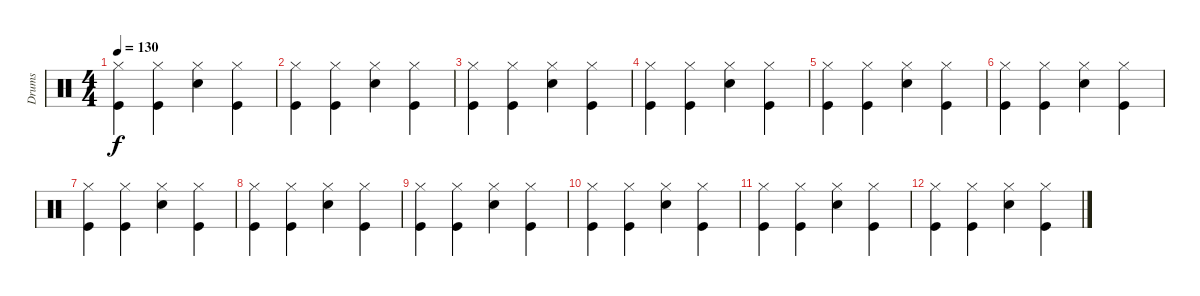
\track ("Drums" "Drums") {instrument percussion}
\staff {score}
\articulation defaults
\ts (4 4)
\tempo 130
\clef neutral
\ks c
("Kick (hit)" "Hi-Hat (closed)").4{dy f} ("Kick (hit)" "Hi-Hat (closed)").4 ("Snare (hit) 2" "Hi-Hat (closed)").4 ("Kick (hit)" "Hi-Hat (closed)").4 |
("Kick (hit)" "Hi-Hat (closed)").4 ("Kick (hit)" "Hi-Hat (closed)").4 ("Snare (hit) 2" "Hi-Hat (closed)").4 ("Kick (hit)" "Hi-Hat (closed)").4 |
("Kick (hit)" "Hi-Hat (closed)").4 ("Kick (hit)" "Hi-Hat (closed)").4 ("Snare (hit) 2" "Hi-Hat (closed)").4 ("Kick (hit)" "Hi-Hat (closed)").4 |
("Kick (hit)" "Hi-Hat (closed)").4 ("Kick (hit)" "Hi-Hat (closed)").4 ("Snare (hit) 2" "Hi-Hat (closed)").4 ("Kick (hit)" "Hi-Hat (closed)").4 |
("Kick (hit)" "Hi-Hat (closed)").4 ("Kick (hit)" "Hi-Hat (closed)").4 ("Snare (hit) 2" "Hi-Hat (closed)").4 ("Kick (hit)" "Hi-Hat (closed)").4 |
("Kick (hit)" "Hi-Hat (closed)").4 ("Kick (hit)" "Hi-Hat (closed)").4 ("Snare (hit) 2" "Hi-Hat (closed)").4 ("Kick (hit)" "Hi-Hat (closed)").4 |
("Kick (hit)" "Hi-Hat (closed)").4 ("Kick (hit)" "Hi-Hat (closed)").4 ("Snare (hit) 2" "Hi-Hat (closed)").4 ("Kick (hit)" "Hi-Hat (closed)").4 |
("Kick (hit)" "Hi-Hat (closed)").4 ("Kick (hit)" "Hi-Hat (closed)").4 ("Snare (hit) 2" "Hi-Hat (closed)").4 ("Kick (hit)" "Hi-Hat (closed)").4 |
("Kick (hit)" "Hi-Hat (closed)").4 ("Kick (hit)" "Hi-Hat (closed)").4 ("Snare (hit) 2" "Hi-Hat (closed)").4 ("Kick (hit)" "Hi-Hat (closed)").4 |
("Kick (hit)" "Hi-Hat (closed)").4 ("Kick (hit)" "Hi-Hat (closed)").4 ("Snare (hit) 2" "Hi-Hat (closed)").4 ("Kick (hit)" "Hi-Hat (closed)").4 |
("Kick (hit)" "Hi-Hat (closed)").4 ("Kick (hit)" "Hi-Hat (closed)").4 ("Snare (hit) 2" "Hi-Hat (closed)").4 ("Kick (hit)" "Hi-Hat (closed)").4 |
("Kick (hit)" "Hi-Hat (closed)").4 ("Kick (hit)" "Hi-Hat (closed)").4 ("Snare (hit) 2" "Hi-Hat (closed)").4 ("Kick (hit)" "Hi-Hat (closed)").4
